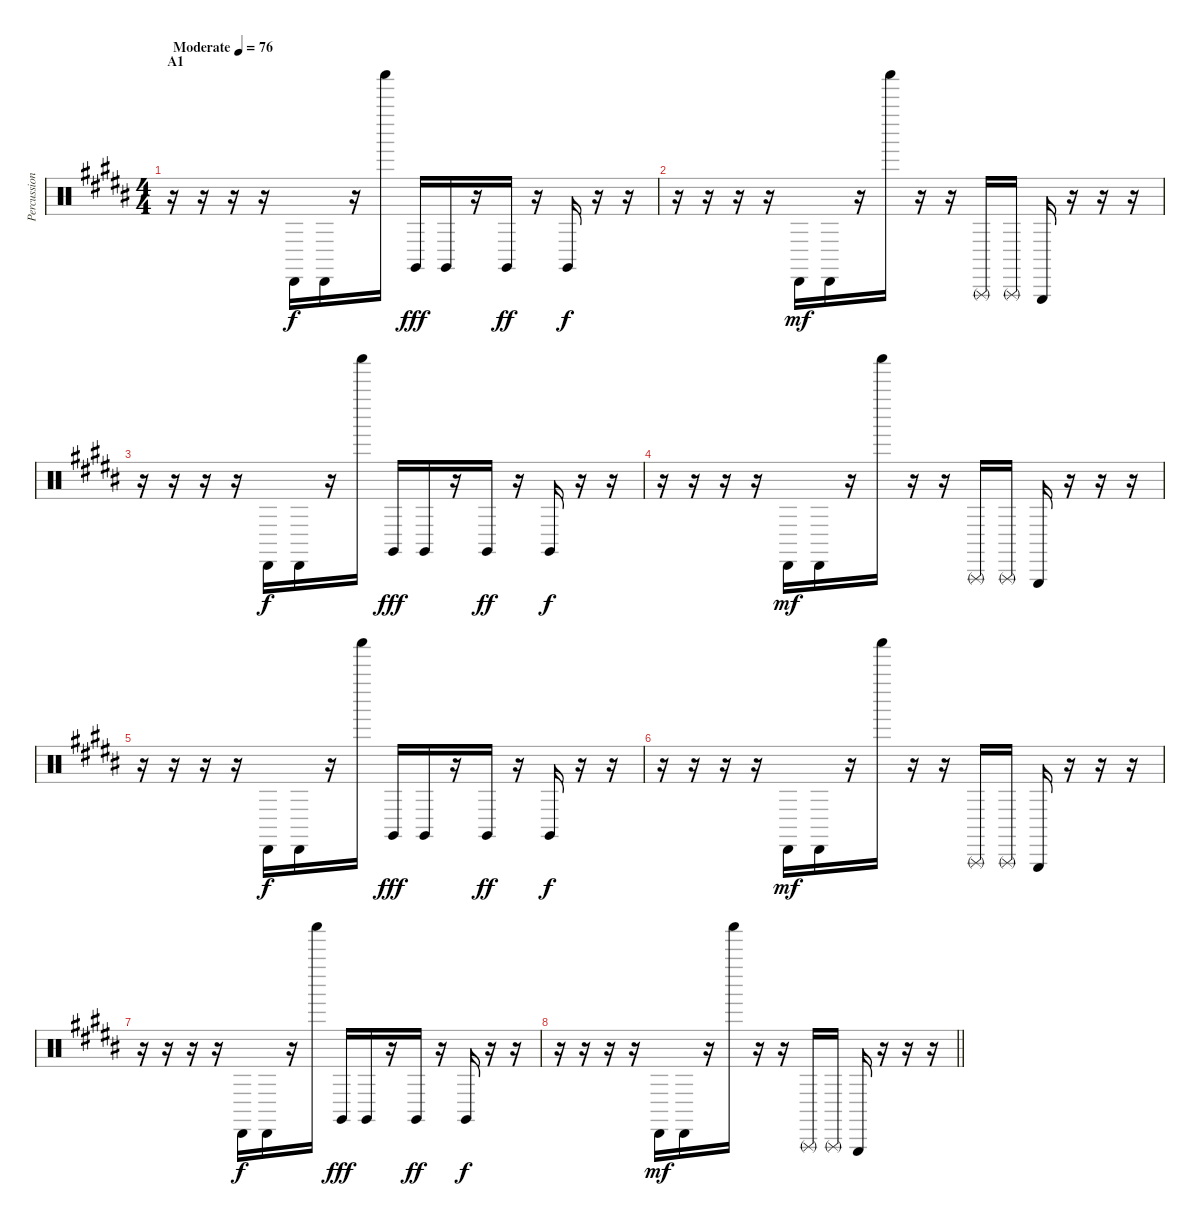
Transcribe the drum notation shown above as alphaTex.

\track ("Percussion" "Percussion") {instrument percussion}
\staff {score}
\articulation defaults
\ts (4 4)
\section ("" "A1")
\tempo (76 "Moderate")
\clef neutral
\ks b
r.16{dy f} r.16 r.16 r.16 "Cabasa (hit)".16 "Cabasa (hit)".16 r.16 "Shaker (hit)".16 "Claves (hit)".16{dy fff} "Claves (hit)".16 r.16 "Claves (hit)".16{dy ff} r.16 "Claves (hit)".16{dy f} r.16 r.16 |
r.16 r.16 r.16 r.16 "Cabasa (hit)".16{dy mf} "Cabasa (hit)".16 r.16 "Shaker (hit)".16 r.16 r.16 "Triangle (rnute)".16 "Triangle (rnute)".16 "Triangle (hit)".16 r.16 r.16 r.16 |
r.16 r.16 r.16 r.16 "Cabasa (hit)".16{dy f} "Cabasa (hit)".16 r.16 "Shaker (hit)".16 "Claves (hit)".16{dy fff} "Claves (hit)".16 r.16 "Claves (hit)".16{dy ff} r.16 "Claves (hit)".16{dy f} r.16 r.16 |
r.16 r.16 r.16 r.16 "Cabasa (hit)".16{dy mf} "Cabasa (hit)".16 r.16 "Shaker (hit)".16 r.16 r.16 "Triangle (rnute)".16 "Triangle (rnute)".16 "Triangle (hit)".16 r.16 r.16 r.16 |
r.16 r.16 r.16 r.16 "Cabasa (hit)".16{dy f} "Cabasa (hit)".16 r.16 "Shaker (hit)".16 "Claves (hit)".16{dy fff} "Claves (hit)".16 r.16 "Claves (hit)".16{dy ff} r.16 "Claves (hit)".16{dy f} r.16 r.16 |
r.16 r.16 r.16 r.16 "Cabasa (hit)".16{dy mf} "Cabasa (hit)".16 r.16 "Shaker (hit)".16 r.16 r.16 "Triangle (rnute)".16 "Triangle (rnute)".16 "Triangle (hit)".16 r.16 r.16 r.16 |
r.16 r.16 r.16 r.16 "Cabasa (hit)".16{dy f} "Cabasa (hit)".16 r.16 "Shaker (hit)".16 "Claves (hit)".16{dy fff} "Claves (hit)".16 r.16 "Claves (hit)".16{dy ff} r.16 "Claves (hit)".16{dy f} r.16 r.16 |
\barLineRight lightlight
r.16 r.16 r.16 r.16 "Cabasa (hit)".16{dy mf} "Cabasa (hit)".16 r.16 "Shaker (hit)".16 r.16 r.16 "Triangle (rnute)".16 "Triangle (rnute)".16 "Triangle (hit)".16 r.16 r.16 r.16
